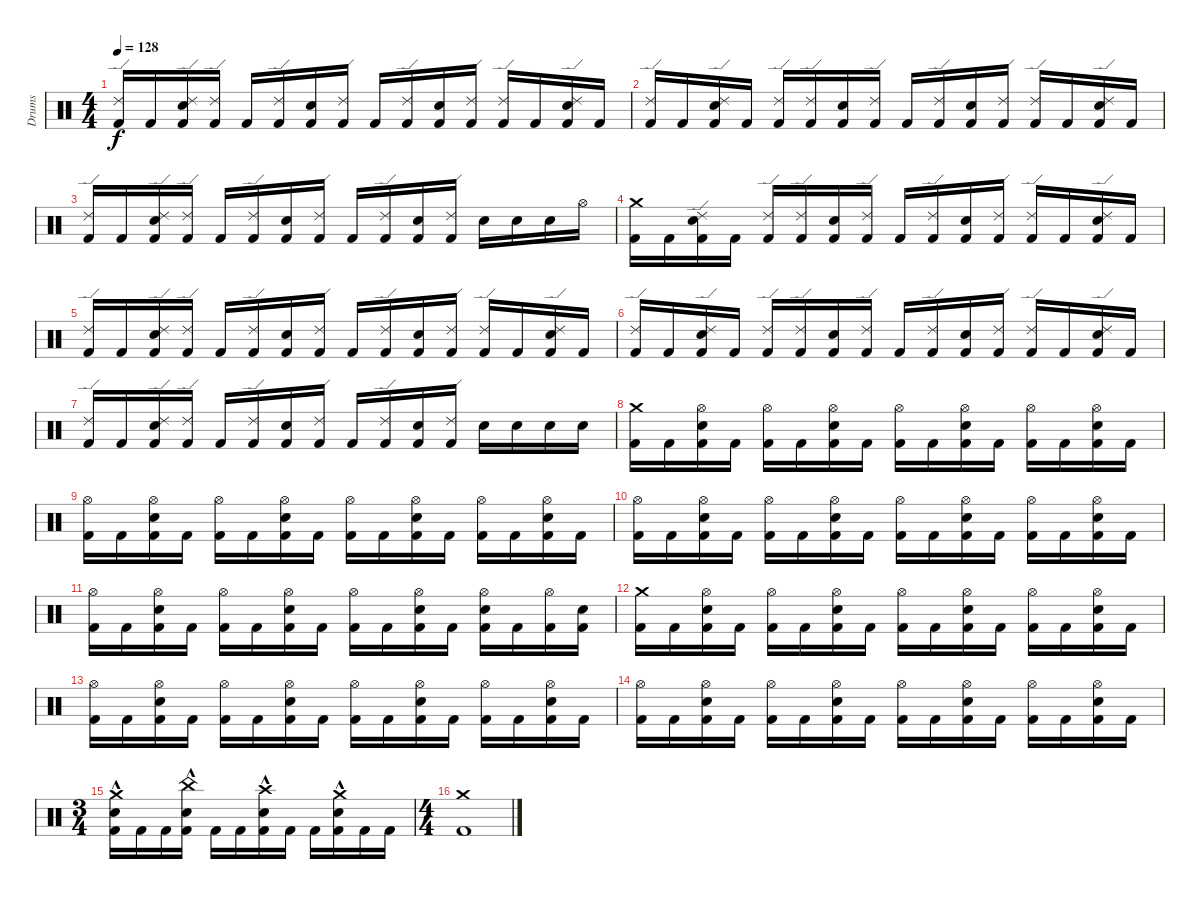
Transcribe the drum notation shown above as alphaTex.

\track ("Drums" "Drums") {instrument percussion}
\staff {score}
\articulation defaults
\ts (4 4)
\tempo 128
\clef neutral
\ks c
("Ride (edge) 2" "Kick (hit) 2").16{dy f} "Kick (hit) 2".16 ("Electric Snare (hit)" "Kick (hit) 2" "Ride (edge) 2").16 ("Ride (edge) 2" "Kick (hit) 2").16 "Kick (hit) 2".16 ("Kick (hit) 2" "Ride (edge) 2").16 ("Electric Snare (hit)" "Kick (hit) 2").16 ("Kick (hit) 2" "Ride (edge) 2").16 "Kick (hit) 2".16 ("Kick (hit) 2" "Ride (edge) 2").16 ("Electric Snare (hit)" "Kick (hit) 2").16 ("Kick (hit) 2" "Ride (edge) 2").16 ("Kick (hit) 2" "Ride (edge) 2").16 "Kick (hit) 2".16 ("Electric Snare (hit)" "Kick (hit) 2" "Ride (edge) 2").16 "Kick (hit) 2".16 |
("Ride (edge) 2" "Kick (hit) 2").16 "Kick (hit) 2".16 ("Electric Snare (hit)" "Kick (hit) 2" "Ride (edge) 2").16 "Kick (hit) 2".16 ("Kick (hit) 2" "Ride (edge) 2").16 ("Kick (hit) 2" "Ride (edge) 2").16 ("Electric Snare (hit)" "Kick (hit) 2").16 ("Kick (hit) 2" "Ride (edge) 2").16 "Kick (hit) 2".16 ("Kick (hit) 2" "Ride (edge) 2").16 ("Electric Snare (hit)" "Kick (hit) 2").16 ("Kick (hit) 2" "Ride (edge) 2").16 ("Kick (hit) 2" "Ride (edge) 2").16 "Kick (hit) 2".16 ("Electric Snare (hit)" "Kick (hit) 2" "Ride (edge) 2").16 "Kick (hit) 2".16 |
("Ride (edge) 2" "Kick (hit) 2").16 "Kick (hit) 2".16 ("Electric Snare (hit)" "Kick (hit) 2" "Ride (edge) 2").16 ("Ride (edge) 2" "Kick (hit) 2").16 "Kick (hit) 2".16 ("Kick (hit) 2" "Ride (edge) 2").16 ("Electric Snare (hit)" "Kick (hit) 2").16 ("Kick (hit) 2" "Ride (edge) 2").16 "Kick (hit) 2".16 ("Kick (hit) 2" "Ride (edge) 2").16 ("Electric Snare (hit)" "Kick (hit) 2").16 ("Kick (hit) 2" "Ride (edge) 2").16 "Electric Snare (hit)".16 "Electric Snare (hit)".16 "Electric Snare (hit)".16 "Hi-Hat (open)".16 |
("Kick (hit) 2" "Crash medium (hit)").16 "Kick (hit) 2".16 ("Electric Snare (hit)" "Kick (hit) 2" "Ride (edge) 2").16 "Kick (hit) 2".16 ("Kick (hit) 2" "Ride (edge) 2").16 ("Kick (hit) 2" "Ride (edge) 2").16 ("Electric Snare (hit)" "Kick (hit) 2").16 ("Kick (hit) 2" "Ride (edge) 2").16 "Kick (hit) 2".16 ("Kick (hit) 2" "Ride (edge) 2").16 ("Electric Snare (hit)" "Kick (hit) 2").16 ("Kick (hit) 2" "Ride (edge) 2").16 ("Kick (hit) 2" "Ride (edge) 2").16 "Kick (hit) 2".16 ("Electric Snare (hit)" "Kick (hit) 2" "Ride (edge) 2").16 "Kick (hit) 2".16 |
("Ride (edge) 2" "Kick (hit) 2").16 "Kick (hit) 2".16 ("Electric Snare (hit)" "Kick (hit) 2" "Ride (edge) 2").16 ("Ride (edge) 2" "Kick (hit) 2").16 "Kick (hit) 2".16 ("Kick (hit) 2" "Ride (edge) 2").16 ("Electric Snare (hit)" "Kick (hit) 2").16 ("Kick (hit) 2" "Ride (edge) 2").16 "Kick (hit) 2".16 ("Kick (hit) 2" "Ride (edge) 2").16 ("Electric Snare (hit)" "Kick (hit) 2").16 ("Kick (hit) 2" "Ride (edge) 2").16 ("Kick (hit) 2" "Ride (edge) 2").16 "Kick (hit) 2".16 ("Electric Snare (hit)" "Kick (hit) 2" "Ride (edge) 2").16 "Kick (hit) 2".16 |
("Ride (edge) 2" "Kick (hit) 2").16 "Kick (hit) 2".16 ("Electric Snare (hit)" "Kick (hit) 2" "Ride (edge) 2").16 "Kick (hit) 2".16 ("Kick (hit) 2" "Ride (edge) 2").16 ("Kick (hit) 2" "Ride (edge) 2").16 ("Electric Snare (hit)" "Kick (hit) 2").16 ("Kick (hit) 2" "Ride (edge) 2").16 "Kick (hit) 2".16 ("Kick (hit) 2" "Ride (edge) 2").16 ("Electric Snare (hit)" "Kick (hit) 2").16 ("Kick (hit) 2" "Ride (edge) 2").16 ("Kick (hit) 2" "Ride (edge) 2").16 "Kick (hit) 2".16 ("Electric Snare (hit)" "Kick (hit) 2" "Ride (edge) 2").16 "Kick (hit) 2".16 |
("Ride (edge) 2" "Kick (hit) 2").16 "Kick (hit) 2".16 ("Electric Snare (hit)" "Kick (hit) 2" "Ride (edge) 2").16 ("Ride (edge) 2" "Kick (hit) 2").16 "Kick (hit) 2".16 ("Kick (hit) 2" "Ride (edge) 2").16 ("Electric Snare (hit)" "Kick (hit) 2").16 ("Kick (hit) 2" "Ride (edge) 2").16 "Kick (hit) 2".16 ("Kick (hit) 2" "Ride (edge) 2").16 ("Electric Snare (hit)" "Kick (hit) 2").16 ("Kick (hit) 2" "Ride (edge) 2").16 "Electric Snare (hit)".16 "Electric Snare (hit)".16 "Electric Snare (hit)".16 "Electric Snare (hit)".16 |
("Crash medium (hit)" "Kick (hit) 2").16 "Kick (hit) 2".16 ("Hi-Hat (open)" "Electric Snare (hit)" "Kick (hit) 2").16 "Kick (hit) 2".16 ("Hi-Hat (open)" "Kick (hit) 2").16 "Kick (hit) 2".16 ("Hi-Hat (open)" "Electric Snare (hit)" "Kick (hit) 2").16 "Kick (hit) 2".16 ("Hi-Hat (open)" "Kick (hit) 2").16 "Kick (hit) 2".16 ("Hi-Hat (open)" "Electric Snare (hit)" "Kick (hit) 2").16 "Kick (hit) 2".16 ("Hi-Hat (open)" "Kick (hit) 2").16 "Kick (hit) 2".16 ("Hi-Hat (open)" "Electric Snare (hit)" "Kick (hit) 2").16 "Kick (hit) 2".16 |
("Hi-Hat (open)" "Kick (hit) 2").16 "Kick (hit) 2".16 ("Hi-Hat (open)" "Electric Snare (hit)" "Kick (hit) 2").16 "Kick (hit) 2".16 ("Hi-Hat (open)" "Kick (hit) 2").16 "Kick (hit) 2".16 ("Hi-Hat (open)" "Electric Snare (hit)" "Kick (hit) 2").16 "Kick (hit) 2".16 ("Hi-Hat (open)" "Kick (hit) 2").16 "Kick (hit) 2".16 ("Hi-Hat (open)" "Electric Snare (hit)" "Kick (hit) 2").16 "Kick (hit) 2".16 ("Hi-Hat (open)" "Kick (hit) 2").16 "Kick (hit) 2".16 ("Hi-Hat (open)" "Electric Snare (hit)" "Kick (hit) 2").16 "Kick (hit) 2".16 |
("Hi-Hat (open)" "Kick (hit) 2").16 "Kick (hit) 2".16 ("Hi-Hat (open)" "Electric Snare (hit)" "Kick (hit) 2").16 "Kick (hit) 2".16 ("Hi-Hat (open)" "Kick (hit) 2").16 "Kick (hit) 2".16 ("Hi-Hat (open)" "Electric Snare (hit)" "Kick (hit) 2").16 "Kick (hit) 2".16 ("Hi-Hat (open)" "Kick (hit) 2").16 "Kick (hit) 2".16 ("Hi-Hat (open)" "Electric Snare (hit)" "Kick (hit) 2").16 "Kick (hit) 2".16 ("Hi-Hat (open)" "Kick (hit) 2").16 "Kick (hit) 2".16 ("Hi-Hat (open)" "Electric Snare (hit)" "Kick (hit) 2").16 "Kick (hit) 2".16 |
("Hi-Hat (open)" "Kick (hit) 2").16 "Kick (hit) 2".16 ("Hi-Hat (open)" "Electric Snare (hit)" "Kick (hit) 2").16 "Kick (hit) 2".16 ("Hi-Hat (open)" "Kick (hit) 2").16 "Kick (hit) 2".16 ("Hi-Hat (open)" "Electric Snare (hit)" "Kick (hit) 2").16 "Kick (hit) 2".16 ("Hi-Hat (open)" "Kick (hit) 2").16 "Kick (hit) 2".16 ("Hi-Hat (open)" "Electric Snare (hit)" "Kick (hit) 2").16 "Kick (hit) 2".16 ("Electric Snare (hit)" "Hi-Hat (open)" "Kick (hit) 2").16 "Kick (hit) 2".16 ("Hi-Hat (open)" "Kick (hit) 2").16 ("Electric Snare (hit)" "Kick (hit) 2").16 |
("Crash medium (hit)" "Kick (hit) 2").16 "Kick (hit) 2".16 ("Hi-Hat (open)" "Electric Snare (hit)" "Kick (hit) 2").16 "Kick (hit) 2".16 ("Hi-Hat (open)" "Kick (hit) 2").16 "Kick (hit) 2".16 ("Hi-Hat (open)" "Electric Snare (hit)" "Kick (hit) 2").16 "Kick (hit) 2".16 ("Hi-Hat (open)" "Kick (hit) 2").16 "Kick (hit) 2".16 ("Hi-Hat (open)" "Electric Snare (hit)" "Kick (hit) 2").16 "Kick (hit) 2".16 ("Hi-Hat (open)" "Kick (hit) 2").16 "Kick (hit) 2".16 ("Hi-Hat (open)" "Electric Snare (hit)" "Kick (hit) 2").16 "Kick (hit) 2".16 |
("Hi-Hat (open)" "Kick (hit) 2").16 "Kick (hit) 2".16 ("Hi-Hat (open)" "Electric Snare (hit)" "Kick (hit) 2").16 "Kick (hit) 2".16 ("Hi-Hat (open)" "Kick (hit) 2").16 "Kick (hit) 2".16 ("Hi-Hat (open)" "Electric Snare (hit)" "Kick (hit) 2").16 "Kick (hit) 2".16 ("Hi-Hat (open)" "Kick (hit) 2").16 "Kick (hit) 2".16 ("Hi-Hat (open)" "Electric Snare (hit)" "Kick (hit) 2").16 "Kick (hit) 2".16 ("Hi-Hat (open)" "Kick (hit) 2").16 "Kick (hit) 2".16 ("Hi-Hat (open)" "Electric Snare (hit)" "Kick (hit) 2").16 "Kick (hit) 2".16 |
("Hi-Hat (open)" "Kick (hit) 2").16 "Kick (hit) 2".16 ("Hi-Hat (open)" "Electric Snare (hit)" "Kick (hit) 2").16 "Kick (hit) 2".16 ("Hi-Hat (open)" "Kick (hit) 2").16 "Kick (hit) 2".16 ("Hi-Hat (open)" "Electric Snare (hit)" "Kick (hit) 2").16 "Kick (hit) 2".16 ("Hi-Hat (open)" "Kick (hit) 2").16 "Kick (hit) 2".16 ("Hi-Hat (open)" "Electric Snare (hit)" "Kick (hit) 2").16 "Kick (hit) 2".16 ("Hi-Hat (open)" "Kick (hit) 2").16 "Kick (hit) 2".16 ("Hi-Hat (open)" "Electric Snare (hit)" "Kick (hit) 2").16 "Kick (hit) 2".16 |
\ts (3 4)
("Crash medium (hit)"{hac} "Electric Snare (hit)" "Kick (hit) 2").16 "Kick (hit) 2".16 "Kick (hit) 2".16 ("China (hit)"{hac} "Electric Snare (hit)" "Kick (hit) 2").16 "Kick (hit) 2".16 "Kick (hit) 2".16 ("Crash high (hit)"{hac} "Electric Snare (hit)" "Kick (hit) 2").16 "Kick (hit) 2".16 "Kick (hit) 2".16 ("Crash medium (hit)"{hac} "Electric Snare (hit)" "Kick (hit) 2").16 "Kick (hit) 2".16 "Kick (hit) 2".16 |
\ts (4 4)
("Crash medium (hit)" "Kick (hit) 2").1
